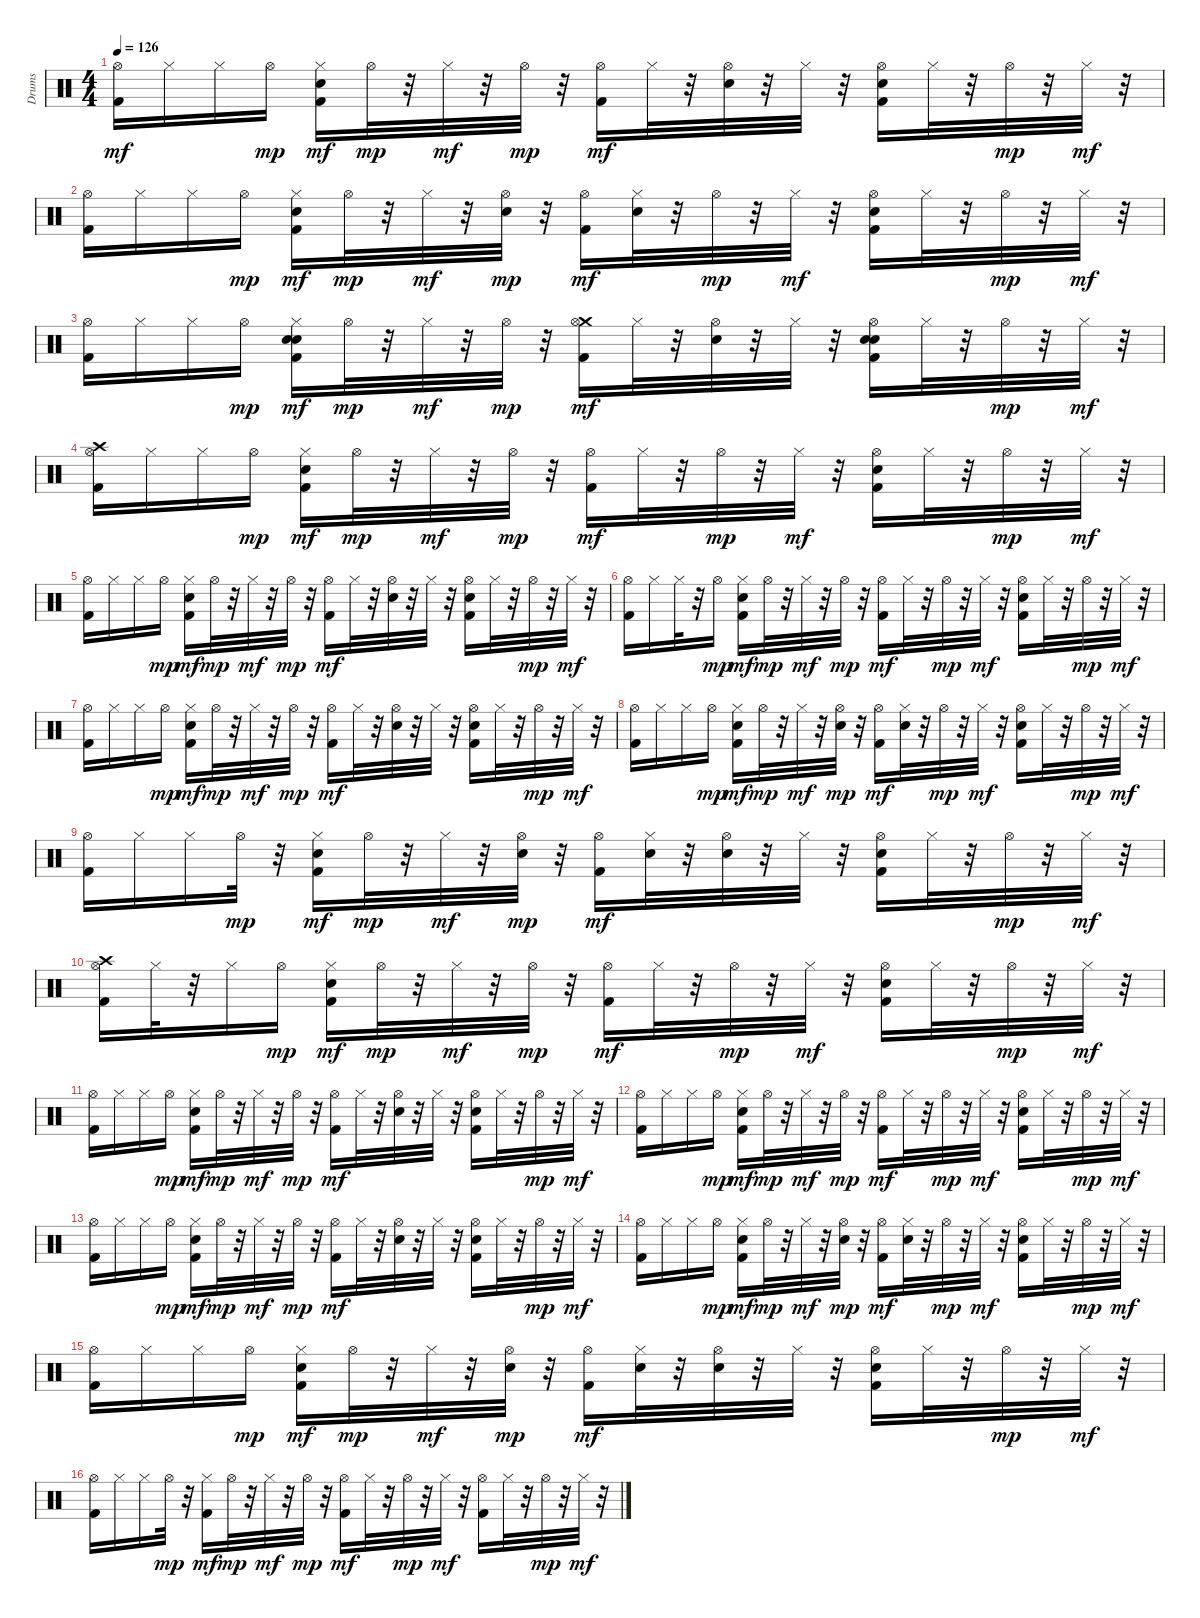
\track ("Drums" "Drums") {instrument percussion}
\staff {score}
\articulation defaults
\ts (4 4)
\tempo 126
\clef neutral
\ks c
("Hi-Hat (open)" "Kick (hit) 2").16{dy mf} "Hi-Hat (closed)".16 "Hi-Hat (closed)".16 "Hi-Hat (open)".16{dy mp} ("Hi-Hat (closed)" "Hand Clap (hit)" "Kick (hit) 2").16{dy mf} "Hi-Hat (open)".32{dy mp} r.32 "Hi-Hat (closed)".32{dy mf} r.32 "Hi-Hat (open)".32{dy mp} r.32 ("Hi-Hat (open)" "Kick (hit) 2").16{dy mf} "Hi-Hat (closed)".32 r.32 ("Hi-Hat (open)" "Hand Clap (hit)").32 r.32 "Hi-Hat (closed)".32 r.32 ("Hi-Hat (open)" "Hand Clap (hit)" "Kick (hit) 2").16 "Hi-Hat (closed)".32 r.32 "Hi-Hat (open)".32{dy mp} r.32 "Hi-Hat (closed)".32{dy mf} r.32 |
("Hi-Hat (open)" "Kick (hit) 2").16 "Hi-Hat (closed)".16 "Hi-Hat (closed)".16 "Hi-Hat (open)".16{dy mp} ("Hi-Hat (closed)" "Hand Clap (hit)" "Kick (hit) 2").16{dy mf} "Hi-Hat (open)".32{dy mp} r.32 "Hi-Hat (closed)".32{dy mf} r.32 ("Snare (hit) 2" "Hi-Hat (open)").32{dy mp} r.32 ("Hi-Hat (open)" "Kick (hit) 2").16{dy mf} ("Snare (hit) 2" "Hi-Hat (closed)").32 r.32 "Hi-Hat (open)".32{dy mp} r.32 "Hi-Hat (closed)".32{dy mf} r.32 ("Hi-Hat (open)" "Hand Clap (hit)" "Kick (hit) 2").16 "Hi-Hat (closed)".32 r.32 "Hi-Hat (open)".32{dy mp} r.32 "Hi-Hat (closed)".32{dy mf} r.32 |
("Hi-Hat (open)" "Kick (hit) 2").16 "Hi-Hat (closed)".16 "Hi-Hat (closed)".16 "Hi-Hat (open)".16{dy mp} ("Electric Snare (hit)" "Hi-Hat (closed)" "Hand Clap (hit)" "Kick (hit) 2").16{dy mf} "Hi-Hat (open)".32{dy mp} r.32 "Hi-Hat (closed)".32{dy mf} r.32 "Hi-Hat (open)".32{dy mp} r.32 ("Crash medium (hit)" "Hi-Hat (open)" "Kick (hit) 2").16{dy mf} "Hi-Hat (closed)".32 r.32 ("Hi-Hat (open)" "Hand Clap (hit)").32 r.32 "Hi-Hat (closed)".32 r.32 ("Electric Snare (hit)" "Hi-Hat (open)" "Hand Clap (hit)" "Kick (hit) 2").16 "Hi-Hat (closed)".32 r.32 "Hi-Hat (open)".32{dy mp} r.32 "Hi-Hat (closed)".32{dy mf} r.32 |
("Crash high (hit)" "Hi-Hat (open)" "Kick (hit) 2").16 "Hi-Hat (closed)".16 "Hi-Hat (closed)".16 "Hi-Hat (open)".16{dy mp} ("Hi-Hat (closed)" "Hand Clap (hit)" "Kick (hit) 2").16{dy mf} "Hi-Hat (open)".32{dy mp} r.32 "Hi-Hat (closed)".32{dy mf} r.32 "Hi-Hat (open)".32{dy mp} r.32 ("Hi-Hat (open)" "Kick (hit) 2").16{dy mf} "Hi-Hat (closed)".32 r.32 "Hi-Hat (open)".32{dy mp} r.32 "Hi-Hat (closed)".32{dy mf} r.32 ("Hi-Hat (open)" "Hand Clap (hit)" "Kick (hit) 2").16 "Hi-Hat (closed)".32 r.32 "Hi-Hat (open)".32{dy mp} r.32 "Hi-Hat (closed)".32{dy mf} r.32 |
("Hi-Hat (open)" "Kick (hit) 2").16 "Hi-Hat (closed)".16 "Hi-Hat (closed)".16 "Hi-Hat (open)".16{dy mp} ("Hi-Hat (closed)" "Hand Clap (hit)" "Kick (hit) 2").16{dy mf} "Hi-Hat (open)".32{dy mp} r.32 "Hi-Hat (closed)".32{dy mf} r.32 "Hi-Hat (open)".32{dy mp} r.32 ("Hi-Hat (open)" "Kick (hit) 2").16{dy mf} "Hi-Hat (closed)".32 r.32 ("Hi-Hat (open)" "Hand Clap (hit)").32 r.32 "Hi-Hat (closed)".32 r.32 ("Hi-Hat (open)" "Hand Clap (hit)" "Kick (hit) 2").16 "Hi-Hat (closed)".32 r.32 "Hi-Hat (open)".32{dy mp} r.32 "Hi-Hat (closed)".32{dy mf} r.32 |
("Hi-Hat (open)" "Kick (hit) 2").16 "Hi-Hat (closed)".16 "Hi-Hat (closed)".32 r.32 "Hi-Hat (open)".16{dy mp} ("Hi-Hat (closed)" "Hand Clap (hit)" "Kick (hit) 2").16{dy mf} "Hi-Hat (open)".32{dy mp} r.32 "Hi-Hat (closed)".32{dy mf} r.32 "Hi-Hat (open)".32{dy mp} r.32 ("Hi-Hat (open)" "Kick (hit) 2").16{dy mf} "Hi-Hat (closed)".32 r.32 "Hi-Hat (open)".32{dy mp} r.32 "Hi-Hat (closed)".32{dy mf} r.32 ("Hi-Hat (open)" "Hand Clap (hit)" "Kick (hit) 2").16 "Hi-Hat (closed)".32 r.32 "Hi-Hat (open)".32{dy mp} r.32 "Hi-Hat (closed)".32{dy mf} r.32 |
("Hi-Hat (open)" "Kick (hit) 2").16 "Hi-Hat (closed)".16 "Hi-Hat (closed)".16 "Hi-Hat (open)".16{dy mp} ("Hi-Hat (closed)" "Hand Clap (hit)" "Kick (hit) 2").16{dy mf} "Hi-Hat (open)".32{dy mp} r.32 "Hi-Hat (closed)".32{dy mf} r.32 "Hi-Hat (open)".32{dy mp} r.32 ("Hi-Hat (open)" "Kick (hit) 2").16{dy mf} "Hi-Hat (closed)".32 r.32 ("Hi-Hat (open)" "Hand Clap (hit)").32 r.32 "Hi-Hat (closed)".32 r.32 ("Hi-Hat (open)" "Hand Clap (hit)" "Kick (hit) 2").16 "Hi-Hat (closed)".32 r.32 "Hi-Hat (open)".32{dy mp} r.32 "Hi-Hat (closed)".32{dy mf} r.32 |
("Hi-Hat (open)" "Kick (hit) 2").16 "Hi-Hat (closed)".16 "Hi-Hat (closed)".16 "Hi-Hat (open)".16{dy mp} ("Hi-Hat (closed)" "Hand Clap (hit)" "Kick (hit) 2").16{dy mf} "Hi-Hat (open)".32{dy mp} r.32 "Hi-Hat (closed)".32{dy mf} r.32 ("Snare (hit) 2" "Hi-Hat (open)").32{dy mp} r.32 ("Hi-Hat (open)" "Kick (hit) 2").16{dy mf} ("Snare (hit) 2" "Hi-Hat (closed)").32 r.32 "Hi-Hat (open)".32{dy mp} r.32 "Hi-Hat (closed)".32{dy mf} r.32 ("Hi-Hat (open)" "Hand Clap (hit)" "Kick (hit) 2").16 "Hi-Hat (closed)".32 r.32 "Hi-Hat (open)".32{dy mp} r.32 "Hi-Hat (closed)".32{dy mf} r.32 |
("Hi-Hat (open)" "Kick (hit) 2").16 "Hi-Hat (closed)".16 "Hi-Hat (closed)".16 "Hi-Hat (open)".32{dy mp} r.32 ("Hi-Hat (closed)" "Hand Clap (hit)" "Kick (hit) 2").16{dy mf} "Hi-Hat (open)".32{dy mp} r.32 "Hi-Hat (closed)".32{dy mf} r.32 ("Snare (hit) 2" "Hi-Hat (open)").32{dy mp} r.32 ("Hi-Hat (open)" "Kick (hit) 2").16{dy mf} ("Snare (hit) 2" "Hi-Hat (closed)").32 r.32 ("Hi-Hat (open)" "Hand Clap (hit)").32 r.32 "Hi-Hat (closed)".32 r.32 ("Hi-Hat (open)" "Hand Clap (hit)" "Kick (hit) 2").16 "Hi-Hat (closed)".32 r.32 "Hi-Hat (open)".32{dy mp} r.32 "Hi-Hat (closed)".32{dy mf} r.32 |
("Hi-Hat (open)" "Crash high (hit)" "Kick (hit) 2").16 "Hi-Hat (closed)".32 r.32 "Hi-Hat (closed)".16 "Hi-Hat (open)".16{dy mp} ("Hi-Hat (closed)" "Hand Clap (hit)" "Kick (hit) 2").16{dy mf} "Hi-Hat (open)".32{dy mp} r.32 "Hi-Hat (closed)".32{dy mf} r.32 "Hi-Hat (open)".32{dy mp} r.32 ("Hi-Hat (open)" "Kick (hit) 2").16{dy mf} "Hi-Hat (closed)".32 r.32 "Hi-Hat (open)".32{dy mp} r.32 "Hi-Hat (closed)".32{dy mf} r.32 ("Hi-Hat (open)" "Hand Clap (hit)" "Kick (hit) 2").16 "Hi-Hat (closed)".32 r.32 "Hi-Hat (open)".32{dy mp} r.32 "Hi-Hat (closed)".32{dy mf} r.32 |
("Hi-Hat (open)" "Kick (hit) 2").16 "Hi-Hat (closed)".16 "Hi-Hat (closed)".16 "Hi-Hat (open)".16{dy mp} ("Hi-Hat (closed)" "Hand Clap (hit)" "Kick (hit) 2").16{dy mf} "Hi-Hat (open)".32{dy mp} r.32 "Hi-Hat (closed)".32{dy mf} r.32 "Hi-Hat (open)".32{dy mp} r.32 ("Hi-Hat (open)" "Kick (hit) 2").16{dy mf} "Hi-Hat (closed)".32 r.32 ("Hi-Hat (open)" "Hand Clap (hit)").32 r.32 "Hi-Hat (closed)".32 r.32 ("Hi-Hat (open)" "Hand Clap (hit)" "Kick (hit) 2").16 "Hi-Hat (closed)".32 r.32 "Hi-Hat (open)".32{dy mp} r.32 "Hi-Hat (closed)".32{dy mf} r.32 |
("Hi-Hat (open)" "Kick (hit) 2").16 "Hi-Hat (closed)".16 "Hi-Hat (closed)".16 "Hi-Hat (open)".16{dy mp} ("Hi-Hat (closed)" "Hand Clap (hit)" "Kick (hit) 2").16{dy mf} "Hi-Hat (open)".32{dy mp} r.32 "Hi-Hat (closed)".32{dy mf} r.32 "Hi-Hat (open)".32{dy mp} r.32 ("Hi-Hat (open)" "Kick (hit) 2").16{dy mf} "Hi-Hat (closed)".32 r.32 "Hi-Hat (open)".32{dy mp} r.32 "Hi-Hat (closed)".32{dy mf} r.32 ("Hi-Hat (open)" "Hand Clap (hit)" "Kick (hit) 2").16 "Hi-Hat (closed)".32 r.32 "Hi-Hat (open)".32{dy mp} r.32 "Hi-Hat (closed)".32{dy mf} r.32 |
("Hi-Hat (open)" "Kick (hit) 2").16 "Hi-Hat (closed)".16 "Hi-Hat (closed)".16 "Hi-Hat (open)".16{dy mp} ("Hi-Hat (closed)" "Hand Clap (hit)" "Kick (hit) 2").16{dy mf} "Hi-Hat (open)".32{dy mp} r.32 "Hi-Hat (closed)".32{dy mf} r.32 "Hi-Hat (open)".32{dy mp} r.32 ("Hi-Hat (open)" "Kick (hit) 2").16{dy mf} "Hi-Hat (closed)".32 r.32 ("Hi-Hat (open)" "Hand Clap (hit)").32 r.32 "Hi-Hat (closed)".32 r.32 ("Hi-Hat (open)" "Hand Clap (hit)" "Kick (hit) 2").16 "Hi-Hat (closed)".32 r.32 "Hi-Hat (open)".32{dy mp} r.32 "Hi-Hat (closed)".32{dy mf} r.32 |
("Hi-Hat (open)" "Kick (hit) 2").16 "Hi-Hat (closed)".16 "Hi-Hat (closed)".16 "Hi-Hat (open)".16{dy mp} ("Hi-Hat (closed)" "Hand Clap (hit)" "Kick (hit) 2").16{dy mf} "Hi-Hat (open)".32{dy mp} r.32 "Hi-Hat (closed)".32{dy mf} r.32 ("Snare (hit) 2" "Hi-Hat (open)").32{dy mp} r.32 ("Hi-Hat (open)" "Kick (hit) 2").16{dy mf} ("Snare (hit) 2" "Hi-Hat (closed)").32 r.32 "Hi-Hat (open)".32{dy mp} r.32 "Hi-Hat (closed)".32{dy mf} r.32 ("Hi-Hat (open)" "Hand Clap (hit)" "Kick (hit) 2").16 "Hi-Hat (closed)".32 r.32 "Hi-Hat (open)".32{dy mp} r.32 "Hi-Hat (closed)".32{dy mf} r.32 |
("Hi-Hat (open)" "Kick (hit) 2").16 "Hi-Hat (closed)".16 "Hi-Hat (closed)".16 "Hi-Hat (open)".16{dy mp} ("Hi-Hat (closed)" "Hand Clap (hit)" "Kick (hit) 2").16{dy mf} "Hi-Hat (open)".32{dy mp} r.32 "Hi-Hat (closed)".32{dy mf} r.32 ("Snare (hit) 2" "Hi-Hat (open)").32{dy mp} r.32 ("Hi-Hat (open)" "Kick (hit) 2").16{dy mf} ("Snare (hit) 2" "Hi-Hat (closed)").32 r.32 ("Hi-Hat (open)" "Hand Clap (hit)").32 r.32 "Hi-Hat (closed)".32 r.32 ("Hi-Hat (open)" "Hand Clap (hit)" "Kick (hit) 2").16 "Hi-Hat (closed)".32 r.32 "Hi-Hat (open)".32{dy mp} r.32 "Hi-Hat (closed)".32{dy mf} r.32 |
("Hi-Hat (open)" "Kick (hit) 2").16 "Hi-Hat (closed)".16 "Hi-Hat (closed)".16 "Hi-Hat (open)".32{dy mp} r.32 ("Hi-Hat (closed)" "Kick (hit) 2").16{dy mf} "Hi-Hat (open)".32{dy mp} r.32 "Hi-Hat (closed)".32{dy mf} r.32 "Hi-Hat (open)".32{dy mp} r.32 ("Hi-Hat (open)" "Kick (hit) 2").16{dy mf} "Hi-Hat (closed)".32 r.32 "Hi-Hat (open)".32{dy mp} r.32 "Hi-Hat (closed)".32{dy mf} r.32 ("Hi-Hat (open)" "Kick (hit) 2").16 "Hi-Hat (closed)".32 r.32 "Hi-Hat (open)".32{dy mp} r.32 "Hi-Hat (closed)".32{dy mf} r.32
